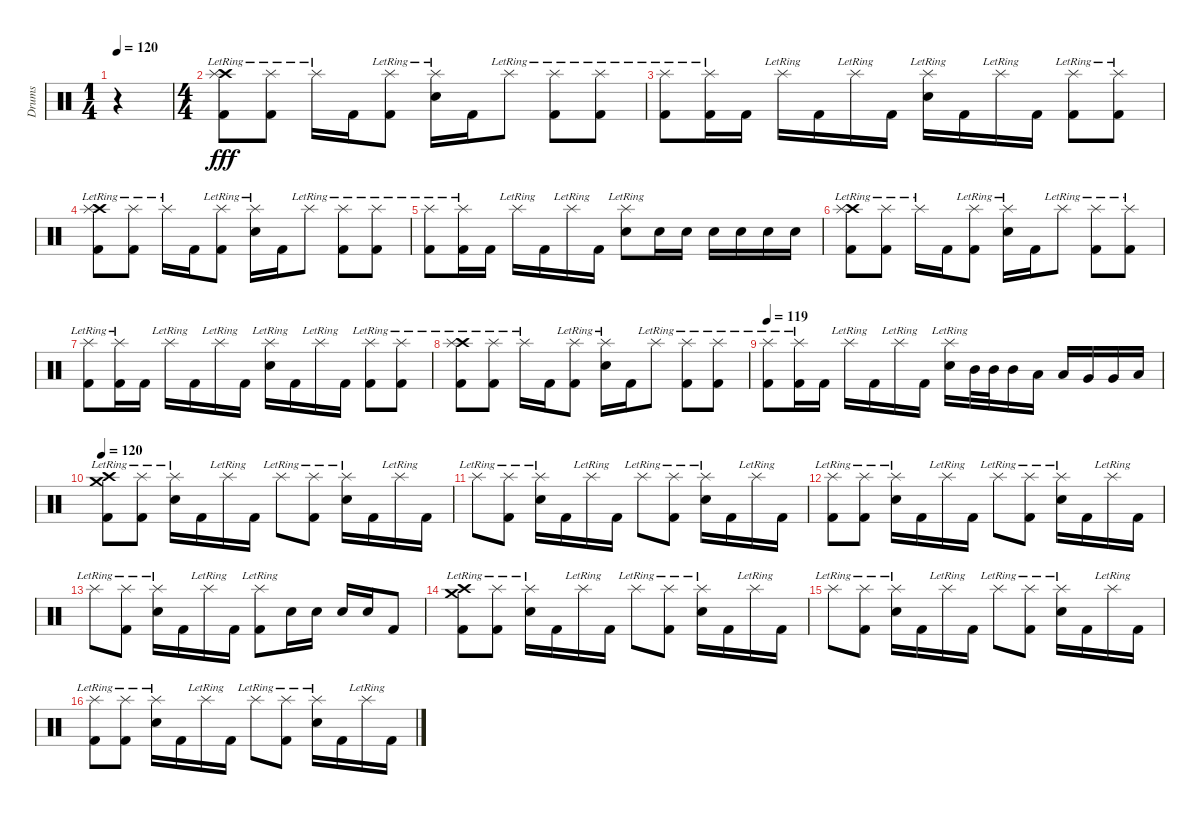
\track ("Drums" "Drums") {instrument percussion}
\staff {score}
\articulation defaults
\ts (1 4)
\tempo 120
\clef neutral
\ks c
r.4{dy fff} |
\ts (4 4)
("Crash high (hit)"{lr} "Splash (hit)"{lr} "Kick (hit) 2").8 ("Splash (hit)"{lr} "Kick (hit) 2").8 "Splash (hit)"{lr}.16 "Kick (hit) 2".16 ("Splash (hit)"{lr} "Kick (hit) 2").8 ("Splash (hit)"{lr} "Electric Snare (hit)").16 "Kick (hit) 2".16 "Splash (hit)"{lr}.8 ("Splash (hit)"{lr} "Kick (hit) 2").8 ("Splash (hit)"{lr} "Kick (hit) 2").8 |
("Splash (hit)"{lr} "Kick (hit) 2").8 ("Splash (hit)"{lr} "Kick (hit) 2").16 "Kick (hit) 2".16 "Splash (hit)"{lr}.16 "Kick (hit) 2".16 "Splash (hit)"{lr}.16 "Kick (hit) 2".16 ("Splash (hit)"{lr} "Electric Snare (hit)").16 "Kick (hit) 2".16 "Splash (hit)"{lr}.16 "Kick (hit) 2".16 ("Splash (hit)"{lr} "Kick (hit) 2").8 ("Splash (hit)"{lr} "Kick (hit) 2").8 |
("Crash high (hit)"{lr} "Splash (hit)"{lr} "Kick (hit) 2").8 ("Splash (hit)"{lr} "Kick (hit) 2").8 "Splash (hit)"{lr}.16 "Kick (hit) 2".16 ("Splash (hit)"{lr} "Kick (hit) 2").8 ("Splash (hit)"{lr} "Electric Snare (hit)").16 "Kick (hit) 2".16 "Splash (hit)"{lr}.8 ("Splash (hit)"{lr} "Kick (hit) 2").8 ("Splash (hit)"{lr} "Kick (hit) 2").8 |
("Splash (hit)"{lr} "Kick (hit) 2").8 ("Splash (hit)"{lr} "Kick (hit) 2").16 "Kick (hit) 2".16 "Splash (hit)"{lr}.16 "Kick (hit) 2".16 "Splash (hit)"{lr}.16 "Kick (hit) 2".16 ("Splash (hit)"{lr} "Electric Snare (hit)").8 "Electric Snare (hit)".16 "Electric Snare (hit)".16 "Electric Snare (hit)".16 "Electric Snare (hit)".16 "Electric Snare (hit)".16 "Electric Snare (hit)".16 |
("Crash high (hit)"{lr} "Splash (hit)"{lr} "Kick (hit) 2").8 ("Splash (hit)"{lr} "Kick (hit) 2").8 "Splash (hit)"{lr}.16 "Kick (hit) 2".16 ("Splash (hit)"{lr} "Kick (hit) 2").8 ("Splash (hit)"{lr} "Electric Snare (hit)").16 "Kick (hit) 2".16 "Splash (hit)"{lr}.8 ("Splash (hit)"{lr} "Kick (hit) 2").8 ("Splash (hit)"{lr} "Kick (hit) 2").8 |
("Splash (hit)"{lr} "Kick (hit) 2").8 ("Splash (hit)"{lr} "Kick (hit) 2").16 "Kick (hit) 2".16 "Splash (hit)"{lr}.16 "Kick (hit) 2".16 "Splash (hit)"{lr}.16 "Kick (hit) 2".16 ("Splash (hit)"{lr} "Electric Snare (hit)").16 "Kick (hit) 2".16 "Splash (hit)"{lr}.16 "Kick (hit) 2".16 ("Splash (hit)"{lr} "Kick (hit) 2").8 ("Splash (hit)"{lr} "Kick (hit) 2").8 |
("Crash high (hit)"{lr} "Splash (hit)"{lr} "Kick (hit) 2").8 ("Splash (hit)"{lr} "Kick (hit) 2").8 "Splash (hit)"{lr}.16 "Kick (hit) 2".16 ("Splash (hit)"{lr} "Kick (hit) 2").8 ("Splash (hit)"{lr} "Electric Snare (hit)").16 "Kick (hit) 2".16 "Splash (hit)"{lr}.8 ("Splash (hit)"{lr} "Kick (hit) 2").8 ("Splash (hit)"{lr} "Kick (hit) 2").8 |
\tempo 119
("Splash (hit)"{lr} "Kick (hit) 2").8 ("Splash (hit)"{lr} "Kick (hit) 2").16 "Kick (hit) 2".16 "Splash (hit)"{lr}.16 "Kick (hit) 2".16 "Splash (hit)"{lr}.16 "Kick (hit) 2".16 ("Splash (hit)"{lr} "Electric Snare (hit)").16 "Mid Tom (hit)".32 "Mid Tom (hit)".32 "Mid Tom (hit)".16 "Low Tom (hit)".16 "Low Tom (hit)".16 "Very Low Tom (hit)".16 "Very Low Tom (hit)".16 "Low Floor Tom (hit)".16 |
\tempo 120
("Crash high (hit)"{lr} "Crash medium (hit)"{lr} "Kick (hit) 2").8 ("Splash (hit)"{lr} "Kick (hit) 2").8 ("Splash (hit)"{lr} "Electric Snare (hit)").16 "Kick (hit) 2".16 "Splash (hit)"{lr}.16 "Kick (hit) 2".16 "Splash (hit)"{lr}.8 ("Splash (hit)"{lr} "Kick (hit) 2").8 ("Splash (hit)"{lr} "Electric Snare (hit)").16 "Kick (hit) 2".16 "Splash (hit)"{lr}.16 "Kick (hit) 2".16 |
"Splash (hit)"{lr}.8 ("Splash (hit)"{lr} "Kick (hit) 2").8 ("Splash (hit)"{lr} "Electric Snare (hit)").16 "Kick (hit) 2".16 "Splash (hit)"{lr}.16 "Kick (hit) 2".16 "Splash (hit)"{lr}.8 ("Splash (hit)"{lr} "Kick (hit) 2").8 ("Splash (hit)"{lr} "Electric Snare (hit)").16 "Kick (hit) 2".16 "Splash (hit)"{lr}.16 "Kick (hit) 2".16 |
("Splash (hit)"{lr} "Kick (hit) 2").8 ("Splash (hit)"{lr} "Kick (hit) 2").8 ("Splash (hit)"{lr} "Electric Snare (hit)").16 "Kick (hit) 2".16 "Splash (hit)"{lr}.16 "Kick (hit) 2".16 "Splash (hit)"{lr}.8 ("Splash (hit)"{lr} "Kick (hit) 2").8 ("Splash (hit)"{lr} "Electric Snare (hit)").16 "Kick (hit) 2".16 "Splash (hit)"{lr}.16 "Kick (hit) 2".16 |
"Splash (hit)"{lr}.8 ("Splash (hit)"{lr} "Kick (hit) 2").8 ("Splash (hit)"{lr} "Electric Snare (hit)").16 "Kick (hit) 2".16 "Splash (hit)"{lr}.16 "Kick (hit) 2".16 ("Splash (hit)"{lr} "Kick (hit) 2").8 "Electric Snare (hit)".16 "Electric Snare (hit)".16 "Electric Snare (hit)".16 "Electric Snare (hit)".16 "Kick (hit) 2".8 |
("Crash high (hit)"{lr} "Crash medium (hit)"{lr} "Kick (hit) 2").8 ("Splash (hit)"{lr} "Kick (hit) 2").8 ("Splash (hit)"{lr} "Electric Snare (hit)").16 "Kick (hit) 2".16 "Splash (hit)"{lr}.16 "Kick (hit) 2".16 "Splash (hit)"{lr}.8 ("Splash (hit)"{lr} "Kick (hit) 2").8 ("Splash (hit)"{lr} "Electric Snare (hit)").16 "Kick (hit) 2".16 "Splash (hit)"{lr}.16 "Kick (hit) 2".16 |
"Splash (hit)"{lr}.8 ("Splash (hit)"{lr} "Kick (hit) 2").8 ("Splash (hit)"{lr} "Electric Snare (hit)").16 "Kick (hit) 2".16 "Splash (hit)"{lr}.16 "Kick (hit) 2".16 "Splash (hit)"{lr}.8 ("Splash (hit)"{lr} "Kick (hit) 2").8 ("Splash (hit)"{lr} "Electric Snare (hit)").16 "Kick (hit) 2".16 "Splash (hit)"{lr}.16 "Kick (hit) 2".16 |
("Splash (hit)"{lr} "Kick (hit) 2").8 ("Splash (hit)"{lr} "Kick (hit) 2").8 ("Splash (hit)"{lr} "Electric Snare (hit)").16 "Kick (hit) 2".16 "Splash (hit)"{lr}.16 "Kick (hit) 2".16 "Splash (hit)"{lr}.8 ("Splash (hit)"{lr} "Kick (hit) 2").8 ("Splash (hit)"{lr} "Electric Snare (hit)").16 "Kick (hit) 2".16 "Splash (hit)"{lr}.16 "Kick (hit) 2".16
